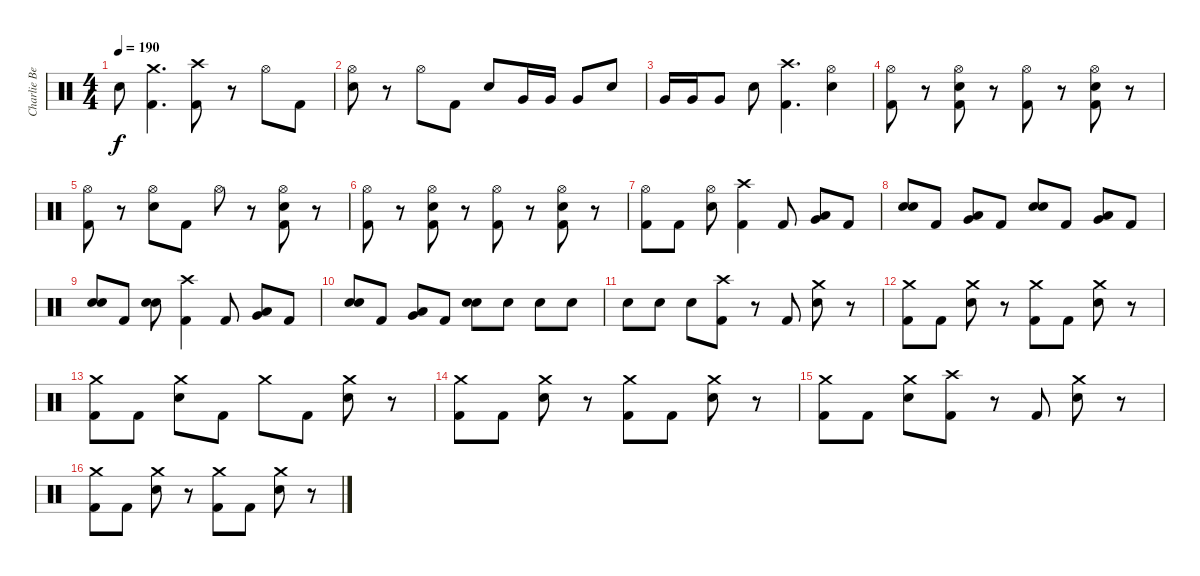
\track ("Charlie Benante" "Charlie Be") {instrument percussion}
\staff {score}
\articulation defaults
\ts (4 4)
\tempo 190
\clef neutral
\ks c "Snare (hit) 2".8{dy f}
("Kick (hit) 2" "Crash medium (hit)").4{d} ("Kick (hit) 2" "Crash high (hit)").8 r.8 "Hi-Hat (open)".8 "Kick (hit) 2".8 |
("Snare (hit) 2" "Hi-Hat (open)").8 r.8 "Hi-Hat (open)".8 "Kick (hit) 2".8 "Snare (hit) 2".8 "Very Low Tom (hit)".16 "Very Low Tom (hit)".16 "Very Low Tom (hit)".8 "Snare (hit) 2".8 |
"Very Low Tom (hit)".16 "Very Low Tom (hit)".16 "Very Low Tom (hit)".8 "Snare (hit) 2".8 ("Kick (hit) 2" "Crash high (hit)").4{d} ("Snare (hit) 2" "Hi-Hat (open)").4 |
("Kick (hit) 2" "Hi-Hat (open)").8 r.8 ("Kick (hit) 2" "Snare (hit) 2" "Hi-Hat (open)").8 r.8 ("Kick (hit) 2" "Hi-Hat (open)").8 r.8 ("Kick (hit) 2" "Snare (hit) 2" "Hi-Hat (open)").8 r.8 |
("Kick (hit) 2" "Hi-Hat (open)").8 r.8 ("Snare (hit) 2" "Hi-Hat (open)").8 "Kick (hit) 2".8 "Hi-Hat (open)".8 r.8 ("Kick (hit) 2" "Snare (hit) 2" "Hi-Hat (open)").8 r.8 |
("Kick (hit) 2" "Hi-Hat (open)").8 r.8 ("Kick (hit) 2" "Snare (hit) 2" "Hi-Hat (open)").8 r.8 ("Kick (hit) 2" "Hi-Hat (open)").8 r.8 ("Kick (hit) 2" "Snare (hit) 2" "Hi-Hat (open)").8 r.8 |
("Kick (hit) 2" "Hi-Hat (open)").8 "Kick (hit) 2".8 ("Snare (hit) 2" "Hi-Hat (open)").8 ("Kick (hit) 2" "Crash high (hit)").4 "Kick (hit) 2".8 ("Very Low Tom (hit)" "Low Floor Tom (hit)").8{bd 120} "Kick (hit) 2".8 |
("Snare (hit) 2" "Snare (hit) 2").8{bd 120} "Kick (hit) 2".8 ("Very Low Tom (hit)" "Low Floor Tom (hit)").8{bd 120} "Kick (hit) 2".8 ("Snare (hit) 2" "Snare (hit) 2").8{bd 120} "Kick (hit) 2".8 ("Very Low Tom (hit)" "Low Floor Tom (hit)").8{bd 120} "Kick (hit) 2".8 |
("Snare (hit) 2" "Snare (hit) 2").8{bd 120} "Kick (hit) 2".8 ("Snare (hit) 2" "Snare (hit) 2").8{bd 120} ("Kick (hit) 2" "Crash high (hit)").4 "Kick (hit) 2".8 ("Very Low Tom (hit)" "Low Floor Tom (hit)").8{bd 120} "Kick (hit) 2".8 |
("Snare (hit) 2" "Snare (hit) 2").8{bd 120} "Kick (hit) 2".8 ("Very Low Tom (hit)" "Low Floor Tom (hit)").8{bd 120} "Kick (hit) 2".8 ("Snare (hit) 2" "Snare (hit) 2").8{bd 120} "Snare (hit) 2".8 "Snare (hit) 2".8 "Snare (hit) 2".8 |
"Snare (hit) 2".8 "Snare (hit) 2".8 "Snare (hit) 2".8 ("Kick (hit) 2" "Crash high (hit)").8 r.8 "Kick (hit) 2".8 ("Snare (hit) 2" "Crash medium (hit)").8 r.8 |
("Kick (hit) 2" "Crash medium (hit)").8 "Kick (hit) 2".8 ("Snare (hit) 2" "Crash medium (hit)").8 r.8 ("Kick (hit) 2" "Crash medium (hit)").8 "Kick (hit) 2".8 ("Snare (hit) 2" "Crash medium (hit)").8 r.8 |
("Kick (hit) 2" "Crash medium (hit)").8 "Kick (hit) 2".8 ("Snare (hit) 2" "Crash medium (hit)").8 "Kick (hit) 2".8 "Crash medium (hit)".8 "Kick (hit) 2".8 ("Snare (hit) 2" "Crash medium (hit)").8 r.8 |
("Kick (hit) 2" "Crash medium (hit)").8 "Kick (hit) 2".8 ("Snare (hit) 2" "Crash medium (hit)").8 r.8 ("Kick (hit) 2" "Crash medium (hit)").8 "Kick (hit) 2".8 ("Snare (hit) 2" "Crash medium (hit)").8 r.8 |
("Kick (hit) 2" "Crash medium (hit)").8 "Kick (hit) 2".8 ("Snare (hit) 2" "Crash medium (hit)").8 ("Kick (hit) 2" "Crash high (hit)").8 r.8 "Kick (hit) 2".8 ("Snare (hit) 2" "Crash medium (hit)").8 r.8 |
("Kick (hit) 2" "Crash medium (hit)").8 "Kick (hit) 2".8 ("Snare (hit) 2" "Crash medium (hit)").8 r.8 ("Kick (hit) 2" "Crash medium (hit)").8 "Kick (hit) 2".8 ("Snare (hit) 2" "Crash medium (hit)").8 r.8
